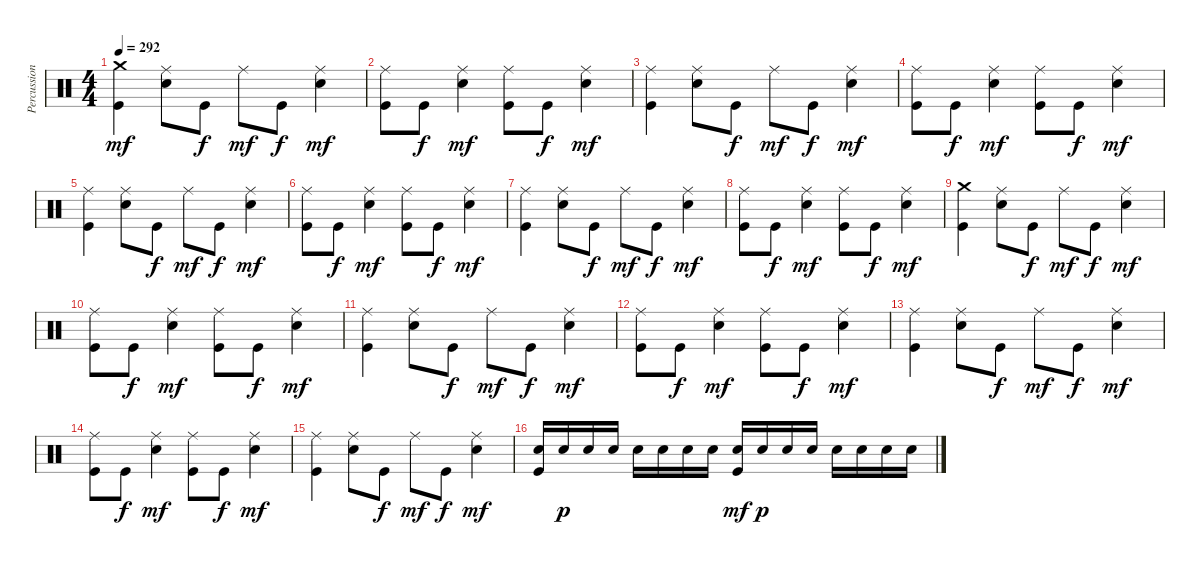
\track ("Percussion" "Percussion") {instrument percussion}
\staff {score}
\articulation defaults
\ts (4 4)
\tempo 292
\clef neutral
\ks c
("Crash medium (hit)" "Kick (hit)").4{dy mf} ("Ride (middle)" "Electric Snare (hit)").8 "Kick (hit)".8{dy f} "Ride (middle)".8{dy mf} "Kick (hit)".8{dy f} ("Ride (middle)" "Electric Snare (hit)").4{dy mf} |
("Ride (middle)" "Kick (hit)").8 "Kick (hit)".8{dy f} ("Ride (middle)" "Electric Snare (hit)").4{dy mf} ("Ride (middle)" "Kick (hit)").8 "Kick (hit)".8{dy f} ("Ride (middle)" "Electric Snare (hit)").4{dy mf} |
("Ride (middle)" "Kick (hit)").4 ("Ride (middle)" "Electric Snare (hit)").8 "Kick (hit)".8{dy f} "Ride (middle)".8{dy mf} "Kick (hit)".8{dy f} ("Ride (middle)" "Electric Snare (hit)").4{dy mf} |
("Ride (middle)" "Kick (hit)").8 "Kick (hit)".8{dy f} ("Ride (middle)" "Electric Snare (hit)").4{dy mf} ("Ride (middle)" "Kick (hit)").8 "Kick (hit)".8{dy f} ("Ride (middle)" "Electric Snare (hit)").4{dy mf} |
("Ride (middle)" "Kick (hit)").4 ("Ride (middle)" "Electric Snare (hit)").8 "Kick (hit)".8{dy f} "Ride (middle)".8{dy mf} "Kick (hit)".8{dy f} ("Ride (middle)" "Electric Snare (hit)").4{dy mf} |
("Ride (middle)" "Kick (hit)").8 "Kick (hit)".8{dy f} ("Ride (middle)" "Electric Snare (hit)").4{dy mf} ("Ride (middle)" "Kick (hit)").8 "Kick (hit)".8{dy f} ("Ride (middle)" "Electric Snare (hit)").4{dy mf} |
("Ride (middle)" "Kick (hit)").4 ("Ride (middle)" "Electric Snare (hit)").8 "Kick (hit)".8{dy f} "Ride (middle)".8{dy mf} "Kick (hit)".8{dy f} ("Ride (middle)" "Electric Snare (hit)").4{dy mf} |
("Ride (middle)" "Kick (hit)").8 "Kick (hit)".8{dy f} ("Ride (middle)" "Electric Snare (hit)").4{dy mf} ("Ride (middle)" "Kick (hit)").8 "Kick (hit)".8{dy f} ("Ride (middle)" "Electric Snare (hit)").4{dy mf} |
("Crash medium (hit)" "Kick (hit)").4 ("Ride (middle)" "Electric Snare (hit)").8 "Kick (hit)".8{dy f} "Ride (middle)".8{dy mf} "Kick (hit)".8{dy f} ("Ride (middle)" "Electric Snare (hit)").4{dy mf} |
("Ride (middle)" "Kick (hit)").8 "Kick (hit)".8{dy f} ("Ride (middle)" "Electric Snare (hit)").4{dy mf} ("Ride (middle)" "Kick (hit)").8 "Kick (hit)".8{dy f} ("Ride (middle)" "Electric Snare (hit)").4{dy mf} |
("Ride (middle)" "Kick (hit)").4 ("Ride (middle)" "Electric Snare (hit)").8 "Kick (hit)".8{dy f} "Ride (middle)".8{dy mf} "Kick (hit)".8{dy f} ("Ride (middle)" "Electric Snare (hit)").4{dy mf} |
("Ride (middle)" "Kick (hit)").8 "Kick (hit)".8{dy f} ("Ride (middle)" "Electric Snare (hit)").4{dy mf} ("Ride (middle)" "Kick (hit)").8 "Kick (hit)".8{dy f} ("Ride (middle)" "Electric Snare (hit)").4{dy mf} |
("Ride (middle)" "Kick (hit)").4 ("Ride (middle)" "Electric Snare (hit)").8 "Kick (hit)".8{dy f} "Ride (middle)".8{dy mf} "Kick (hit)".8{dy f} ("Ride (middle)" "Electric Snare (hit)").4{dy mf} |
("Ride (middle)" "Kick (hit)").8 "Kick (hit)".8{dy f} ("Ride (middle)" "Electric Snare (hit)").4{dy mf} ("Ride (middle)" "Kick (hit)").8 "Kick (hit)".8{dy f} ("Ride (middle)" "Electric Snare (hit)").4{dy mf} |
("Ride (middle)" "Kick (hit)").4 ("Ride (middle)" "Electric Snare (hit)").8 "Kick (hit)".8{dy f} "Ride (middle)".8{dy mf} "Kick (hit)".8{dy f} ("Ride (middle)" "Electric Snare (hit)").4{dy mf} |
("Electric Snare (hit)" "Kick (hit)").16 "Electric Snare (hit)".16{dy p} "Electric Snare (hit)".16 "Electric Snare (hit)".16 "Electric Snare (hit)".16 "Electric Snare (hit)".16 "Electric Snare (hit)".16 "Electric Snare (hit)".16 ("Electric Snare (hit)" "Kick (hit)").16{dy mf} "Electric Snare (hit)".16{dy p} "Electric Snare (hit)".16 "Electric Snare (hit)".16 "Electric Snare (hit)".16 "Electric Snare (hit)".16 "Electric Snare (hit)".16 "Electric Snare (hit)".16
